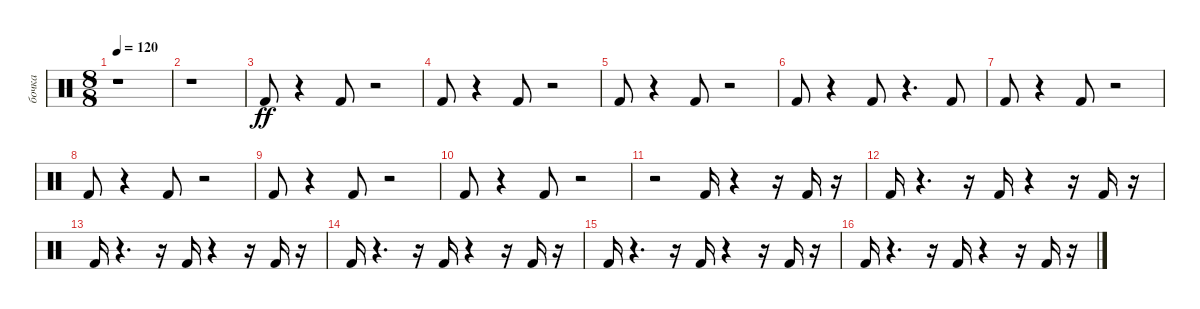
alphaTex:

\track ("бочка" "бочка") {instrument percussion}
\staff {score}
\articulation defaults
\ts (8 8)
\tempo 120
\clef neutral
\ks c
r.1{dy ff} |
r.1 |
"Kick (hit) 2".8 r.4 "Kick (hit) 2".8 r.2 |
"Kick (hit) 2".8 r.4 "Kick (hit) 2".8 r.2 |
"Kick (hit) 2".8 r.4 "Kick (hit) 2".8 r.2 |
"Kick (hit) 2".8 r.4 "Kick (hit) 2".8 r.4{d} "Kick (hit) 2".8 |
"Kick (hit) 2".8 r.4 "Kick (hit) 2".8 r.2 |
"Kick (hit) 2".8 r.4 "Kick (hit) 2".8 r.2 |
"Kick (hit) 2".8 r.4 "Kick (hit) 2".8 r.2 |
"Kick (hit) 2".8 r.4 "Kick (hit) 2".8 r.2 |
r.2 "Kick (hit) 2".16 r.4 r.16 "Kick (hit) 2".16 r.16 |
"Kick (hit) 2".16 r.4{d} r.16 "Kick (hit) 2".16 r.4 r.16 "Kick (hit) 2".16 r.16 |
"Kick (hit) 2".16 r.4{d} r.16 "Kick (hit) 2".16 r.4 r.16 "Kick (hit) 2".16 r.16 |
"Kick (hit) 2".16 r.4{d} r.16 "Kick (hit) 2".16 r.4 r.16 "Kick (hit) 2".16 r.16 |
"Kick (hit) 2".16 r.4{d} r.16 "Kick (hit) 2".16 r.4 r.16 "Kick (hit) 2".16 r.16 |
"Kick (hit) 2".16 r.4{d} r.16 "Kick (hit) 2".16 r.4 r.16 "Kick (hit) 2".16 r.16
